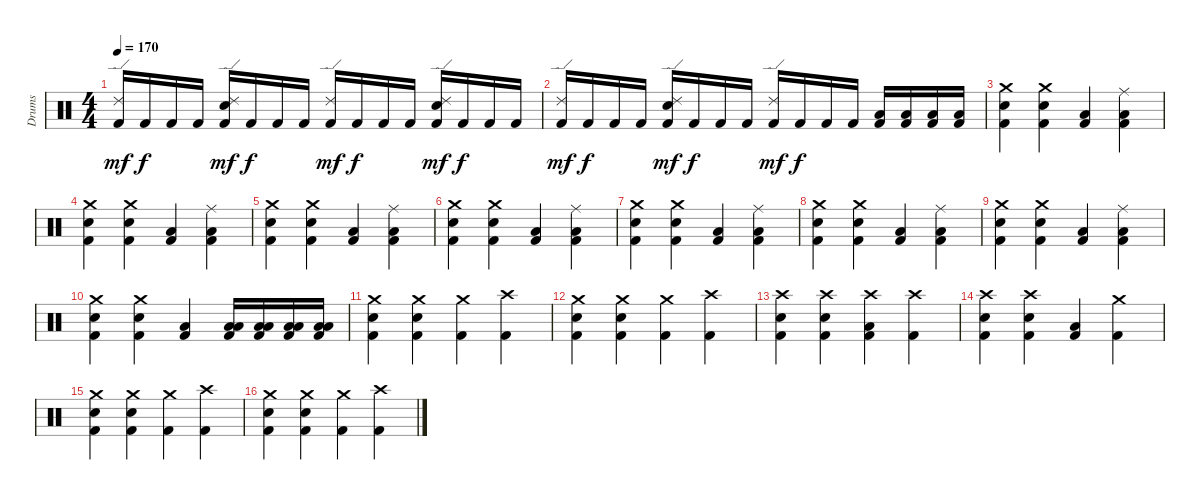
\track ("Drums" "Drums") {instrument percussion}
\staff {score}
\articulation defaults
\ts (4 4)
\tempo 170
\clef neutral
\ks c
("Ride (edge) 2" "Kick (hit) 2").16{dy mf} "Kick (hit) 2".16{dy f} "Kick (hit) 2".16 "Kick (hit) 2".16 ("Ride (edge) 2" "Snare (hit) 2" "Kick (hit) 2").16{dy mf} "Kick (hit) 2".16{dy f} "Kick (hit) 2".16 "Kick (hit) 2".16 ("Ride (edge) 2" "Kick (hit) 2").16{dy mf} "Kick (hit) 2".16{dy f} "Kick (hit) 2".16 "Kick (hit) 2".16 ("Ride (edge) 2" "Snare (hit) 2" "Kick (hit) 2").16{dy mf} "Kick (hit) 2".16{dy f} "Kick (hit) 2".16 "Kick (hit) 2".16 |
("Ride (edge) 2" "Kick (hit) 2").16{dy mf} "Kick (hit) 2".16{dy f} "Kick (hit) 2".16 "Kick (hit) 2".16 ("Ride (edge) 2" "Snare (hit) 2" "Kick (hit) 2").16{dy mf} "Kick (hit) 2".16{dy f} "Kick (hit) 2".16 "Kick (hit) 2".16 ("Ride (edge) 2" "Kick (hit) 2").16{dy mf} "Kick (hit) 2".16{dy f} "Kick (hit) 2".16 "Kick (hit) 2".16 ("Low Floor Tom (hit)" "Kick (hit) 2").16 ("Low Floor Tom (hit)" "Kick (hit) 2").16 ("Low Floor Tom (hit)" "Kick (hit) 2").16 ("Low Floor Tom (hit)" "Kick (hit) 2").16 |
("Crash medium (hit)" "Snare (hit) 2" "Kick (hit) 2").4 ("Crash medium (hit)" "Snare (hit) 2" "Kick (hit) 2").4 ("Low Floor Tom (hit)" "Kick (hit) 2").4 ("Ride (middle)" "Low Floor Tom (hit)" "Kick (hit) 2").4 |
("Crash medium (hit)" "Snare (hit) 2" "Kick (hit) 2").4 ("Crash medium (hit)" "Snare (hit) 2" "Kick (hit) 2").4 ("Low Floor Tom (hit)" "Kick (hit) 2").4 ("Ride (middle)" "Low Floor Tom (hit)" "Kick (hit) 2").4 |
("Crash medium (hit)" "Snare (hit) 2" "Kick (hit) 2").4 ("Crash medium (hit)" "Snare (hit) 2" "Kick (hit) 2").4 ("Low Floor Tom (hit)" "Kick (hit) 2").4 ("Ride (middle)" "Low Floor Tom (hit)" "Kick (hit) 2").4 |
("Crash medium (hit)" "Snare (hit) 2" "Kick (hit) 2").4 ("Crash medium (hit)" "Snare (hit) 2" "Kick (hit) 2").4 ("Low Floor Tom (hit)" "Kick (hit) 2").4 ("Ride (middle)" "Low Floor Tom (hit)" "Kick (hit) 2").4 |
("Crash medium (hit)" "Snare (hit) 2" "Kick (hit) 2").4 ("Crash medium (hit)" "Snare (hit) 2" "Kick (hit) 2").4 ("Low Floor Tom (hit)" "Kick (hit) 2").4 ("Ride (middle)" "Low Floor Tom (hit)" "Kick (hit) 2").4 |
("Crash medium (hit)" "Snare (hit) 2" "Kick (hit) 2").4 ("Crash medium (hit)" "Snare (hit) 2" "Kick (hit) 2").4 ("Low Floor Tom (hit)" "Kick (hit) 2").4 ("Ride (middle)" "Low Floor Tom (hit)" "Kick (hit) 2").4 |
("Crash medium (hit)" "Snare (hit) 2" "Kick (hit) 2").4 ("Crash medium (hit)" "Snare (hit) 2" "Kick (hit) 2").4 ("Low Floor Tom (hit)" "Kick (hit) 2").4 ("Ride (middle)" "Low Floor Tom (hit)" "Kick (hit) 2").4 |
("Crash medium (hit)" "Snare (hit) 2" "Kick (hit) 2").4 ("Crash medium (hit)" "Snare (hit) 2" "Kick (hit) 2").4 ("Low Floor Tom (hit)" "Kick (hit) 2").4 ("Low Floor Tom (hit)" "Low Floor Tom (hit)" "Kick (hit) 2").16 ("Low Floor Tom (hit)" "Low Floor Tom (hit)" "Kick (hit) 2").16 ("Low Floor Tom (hit)" "Low Floor Tom (hit)" "Kick (hit) 2").16 ("Low Floor Tom (hit)" "Low Floor Tom (hit)" "Kick (hit) 2").16 |
("Crash medium (hit)" "Snare (hit) 2" "Kick (hit) 2").4 ("Crash medium (hit)" "Snare (hit) 2" "Kick (hit) 2").4 ("Crash medium (hit)" "Kick (hit) 2").4 ("Crash high (hit)" "Kick (hit) 2").4 |
("Crash medium (hit)" "Snare (hit) 2" "Kick (hit) 2").4 ("Crash medium (hit)" "Snare (hit) 2" "Kick (hit) 2").4 ("Crash medium (hit)" "Kick (hit) 2").4 ("Crash high (hit)" "Kick (hit) 2").4 |
("Crash high (hit)" "Snare (hit) 2" "Kick (hit) 2").4 ("Crash high (hit)" "Snare (hit) 2" "Kick (hit) 2").4 ("Crash high (hit)" "Low Floor Tom (hit)" "Kick (hit) 2").4 ("Crash high (hit)" "Kick (hit) 2").4 |
("Crash high (hit)" "Snare (hit) 2" "Kick (hit) 2").4 ("Crash high (hit)" "Snare (hit) 2" "Kick (hit) 2").4 ("Low Floor Tom (hit)" "Kick (hit) 2").4 ("Crash medium (hit)" "Kick (hit) 2").4 |
("Crash medium (hit)" "Snare (hit) 2" "Kick (hit) 2").4 ("Crash medium (hit)" "Snare (hit) 2" "Kick (hit) 2").4 ("Crash medium (hit)" "Kick (hit) 2").4 ("Crash high (hit)" "Kick (hit) 2").4 |
("Crash medium (hit)" "Snare (hit) 2" "Kick (hit) 2").4 ("Crash medium (hit)" "Snare (hit) 2" "Kick (hit) 2").4 ("Crash medium (hit)" "Kick (hit) 2").4 ("Crash high (hit)" "Kick (hit) 2").4
